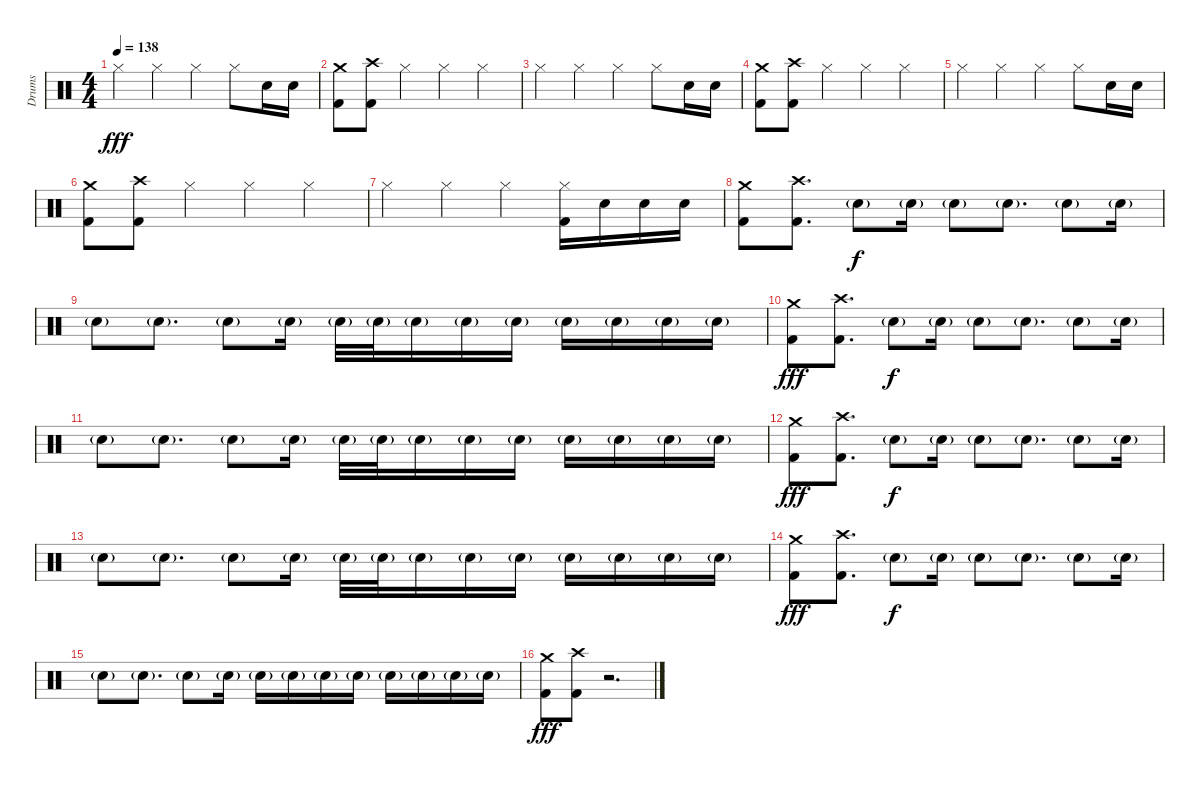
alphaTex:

\track ("Drums" "Drums") {instrument percussion}
\staff {score}
\articulation defaults
\ts (4 4)
\tempo 138
\clef neutral
\ks c "Hi-Hat (closed)".4{dy fff} "Hi-Hat (closed)".4 "Hi-Hat (closed)".4 "Hi-Hat (closed)".8 "Electric Snare (hit)".16 "Electric Snare (hit)".16
|
("Crash medium (hit)" "Kick (hit) 2").8 ("Crash high (hit)" "Kick (hit) 2").8 "Hi-Hat (closed)".4 "Hi-Hat (closed)".4 "Hi-Hat (closed)".4 |
"Hi-Hat (closed)".4 "Hi-Hat (closed)".4 "Hi-Hat (closed)".4 "Hi-Hat (closed)".8 "Electric Snare (hit)".16 "Electric Snare (hit)".16 |
("Crash medium (hit)" "Kick (hit) 2").8 ("Crash high (hit)" "Kick (hit) 2").8 "Hi-Hat (closed)".4 "Hi-Hat (closed)".4 "Hi-Hat (closed)".4 |
"Hi-Hat (closed)".4 "Hi-Hat (closed)".4 "Hi-Hat (closed)".4 "Hi-Hat (closed)".8 "Electric Snare (hit)".16 "Electric Snare (hit)".16 |
("Crash medium (hit)" "Kick (hit) 2").8 ("Crash high (hit)" "Kick (hit) 2").8 "Hi-Hat (closed)".4 "Hi-Hat (closed)".4 "Hi-Hat (closed)".4 |
"Hi-Hat (closed)".4 "Hi-Hat (closed)".4 "Hi-Hat (closed)".4 ("Hi-Hat (closed)" "Kick (hit) 2").16 "Electric Snare (hit)".16 "Electric Snare (hit)".16 "Electric Snare (hit)".16 |
("Crash medium (hit)" "Kick (hit) 2").8 ("Crash high (hit)" "Kick (hit) 2").8{d} "Electric Snare (hit)"{g}.8{dy f} "Electric Snare (hit)"{g}.16 "Electric Snare (hit)"{g}.8 "Electric Snare (hit)"{g}.8{d} "Electric Snare (hit)"{g}.8 "Electric Snare (hit)"{g}.16 |
"Electric Snare (hit)"{g}.8 "Electric Snare (hit)"{g}.8{d} "Electric Snare (hit)"{g}.8 "Electric Snare (hit)"{g}.16 "Electric Snare (hit)"{g}.32 "Electric Snare (hit)"{g}.32 "Electric Snare (hit)"{g}.16 "Electric Snare (hit)"{g}.16 "Electric Snare (hit)"{g}.16 "Electric Snare (hit)"{g}.16 "Electric Snare (hit)"{g}.16 "Electric Snare (hit)"{g}.16 "Electric Snare (hit)"{g}.16 |
("Crash medium (hit)" "Kick (hit) 2").8{dy fff} ("Crash high (hit)" "Kick (hit) 2").8{d} "Electric Snare (hit)"{g}.8{dy f} "Electric Snare (hit)"{g}.16 "Electric Snare (hit)"{g}.8 "Electric Snare (hit)"{g}.8{d} "Electric Snare (hit)"{g}.8 "Electric Snare (hit)"{g}.16 |
"Electric Snare (hit)"{g}.8 "Electric Snare (hit)"{g}.8{d} "Electric Snare (hit)"{g}.8 "Electric Snare (hit)"{g}.16 "Electric Snare (hit)"{g}.32 "Electric Snare (hit)"{g}.32 "Electric Snare (hit)"{g}.16 "Electric Snare (hit)"{g}.16 "Electric Snare (hit)"{g}.16 "Electric Snare (hit)"{g}.16 "Electric Snare (hit)"{g}.16 "Electric Snare (hit)"{g}.16 "Electric Snare (hit)"{g}.16 |
("Crash medium (hit)" "Kick (hit) 2").8{dy fff} ("Crash high (hit)" "Kick (hit) 2").8{d} "Electric Snare (hit)"{g}.8{dy f} "Electric Snare (hit)"{g}.16 "Electric Snare (hit)"{g}.8 "Electric Snare (hit)"{g}.8{d} "Electric Snare (hit)"{g}.8 "Electric Snare (hit)"{g}.16 |
"Electric Snare (hit)"{g}.8 "Electric Snare (hit)"{g}.8{d} "Electric Snare (hit)"{g}.8 "Electric Snare (hit)"{g}.16 "Electric Snare (hit)"{g}.32 "Electric Snare (hit)"{g}.32 "Electric Snare (hit)"{g}.16 "Electric Snare (hit)"{g}.16 "Electric Snare (hit)"{g}.16 "Electric Snare (hit)"{g}.16 "Electric Snare (hit)"{g}.16 "Electric Snare (hit)"{g}.16 "Electric Snare (hit)"{g}.16 |
("Crash medium (hit)" "Kick (hit) 2").8{dy fff} ("Crash high (hit)" "Kick (hit) 2").8{d} "Electric Snare (hit)"{g}.8{dy f} "Electric Snare (hit)"{g}.16 "Electric Snare (hit)"{g}.8 "Electric Snare (hit)"{g}.8{d} "Electric Snare (hit)"{g}.8 "Electric Snare (hit)"{g}.16 |
"Electric Snare (hit)"{g}.8 "Electric Snare (hit)"{g}.8{d} "Electric Snare (hit)"{g}.8 "Electric Snare (hit)"{g}.16 "Electric Snare (hit)"{g}.16 "Electric Snare (hit)"{g}.16 "Electric Snare (hit)"{g}.16 "Electric Snare (hit)"{g}.16 "Electric Snare (hit)"{g}.16 "Electric Snare (hit)"{g}.16 "Electric Snare (hit)"{g}.16 "Electric Snare (hit)"{g}.16 |
("Crash medium (hit)" "Kick (hit) 2").8{dy fff} ("Crash high (hit)" "Kick (hit) 2").8 r.2{d}
